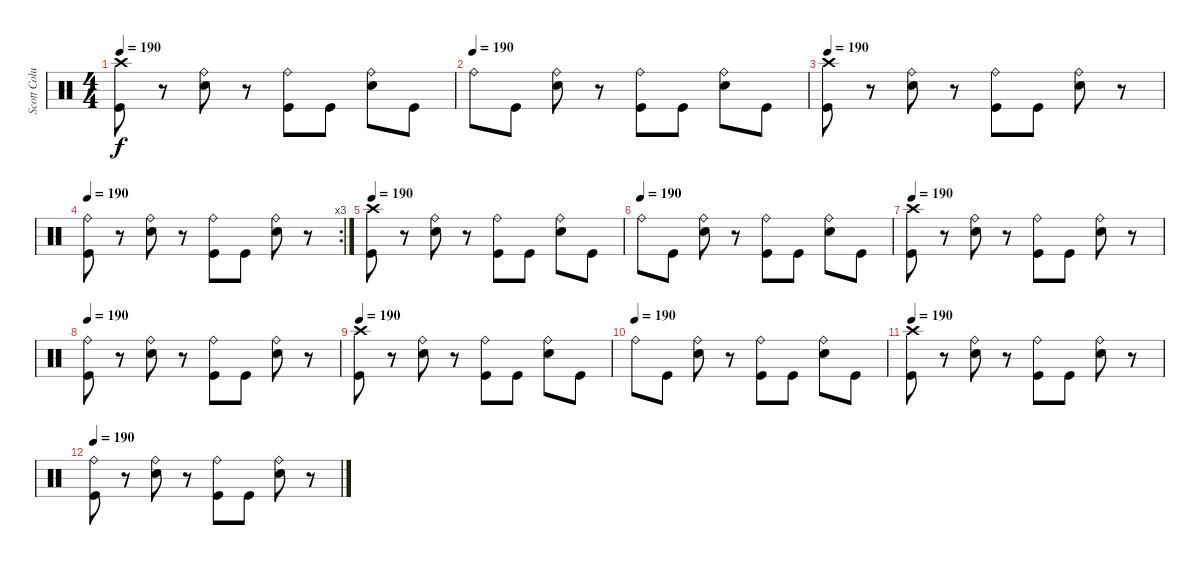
\track ("Scott Columbus" "Scott Colu") {instrument percussion}
\staff {score}
\articulation defaults
\ts (4 4)
\tempo 190
\clef neutral
\ks c
("Crash high (hit)" "Kick (hit)").8{dy f} r.8 ("Ride (bell)" "Snare (hit) 2").8 r.8 ("Ride (bell)" "Kick (hit)").8 "Kick (hit)".8 ("Ride (bell)" "Snare (hit) 2").8 "Kick (hit)".8 |
\tempo (190)
"Ride (bell)".8 "Kick (hit)".8 ("Ride (bell)" "Snare (hit) 2").8 r.8 ("Ride (bell)" "Kick (hit)").8 "Kick (hit)".8 ("Ride (bell)" "Snare (hit) 2").8 "Kick (hit)".8 |
\tempo 190
("Crash high (hit)" "Kick (hit)").8 r.8 ("Ride (bell)" "Snare (hit) 2").8 r.8 ("Ride (bell)" "Kick (hit)").8 "Kick (hit)".8 ("Ride (bell)" "Snare (hit) 2").8 r.8 |
\rc 3
\tempo 190
("Ride (bell)" "Kick (hit)").8 r.8 ("Ride (bell)" "Snare (hit) 2").8 r.8 ("Ride (bell)" "Kick (hit)").8 "Kick (hit)".8 ("Ride (bell)" "Snare (hit) 2").8 r.8 |
\tempo 190
("Crash high (hit)" "Kick (hit)").8 r.8 ("Ride (bell)" "Snare (hit) 2").8 r.8 ("Ride (bell)" "Kick (hit)").8 "Kick (hit)".8 ("Ride (bell)" "Snare (hit) 2").8 "Kick (hit)".8 |
\tempo (190)
"Ride (bell)".8 "Kick (hit)".8 ("Ride (bell)" "Snare (hit) 2").8 r.8 ("Ride (bell)" "Kick (hit)").8 "Kick (hit)".8 ("Ride (bell)" "Snare (hit) 2").8 "Kick (hit)".8 |
\tempo 190
("Crash high (hit)" "Kick (hit)").8{volume 0} r.8 ("Ride (bell)" "Snare (hit) 2").8 r.8 ("Ride (bell)" "Kick (hit)").8 "Kick (hit)".8 ("Ride (bell)" "Snare (hit) 2").8 r.8 |
\tempo 190
("Ride (bell)" "Kick (hit)").8 r.8 ("Ride (bell)" "Snare (hit) 2").8 r.8 ("Ride (bell)" "Kick (hit)").8 "Kick (hit)".8 ("Ride (bell)" "Snare (hit) 2").8 r.8 |
\tempo 190
("Crash high (hit)" "Kick (hit)").8 r.8 ("Ride (bell)" "Snare (hit) 2").8 r.8 ("Ride (bell)" "Kick (hit)").8 "Kick (hit)".8 ("Ride (bell)" "Snare (hit) 2").8 "Kick (hit)".8 |
\tempo (190)
"Ride (bell)".8 "Kick (hit)".8 ("Ride (bell)" "Snare (hit) 2").8 r.8 ("Ride (bell)" "Kick (hit)").8 "Kick (hit)".8 ("Ride (bell)" "Snare (hit) 2").8 "Kick (hit)".8 |
\tempo 190
("Crash high (hit)" "Kick (hit)").8 r.8 ("Ride (bell)" "Snare (hit) 2").8 r.8 ("Ride (bell)" "Kick (hit)").8 "Kick (hit)".8 ("Ride (bell)" "Snare (hit) 2").8 r.8 |
\tempo 190
("Ride (bell)" "Kick (hit)").8 r.8 ("Ride (bell)" "Snare (hit) 2").8 r.8 ("Ride (bell)" "Kick (hit)").8 "Kick (hit)".8 ("Ride (bell)" "Snare (hit) 2").8 r.8
